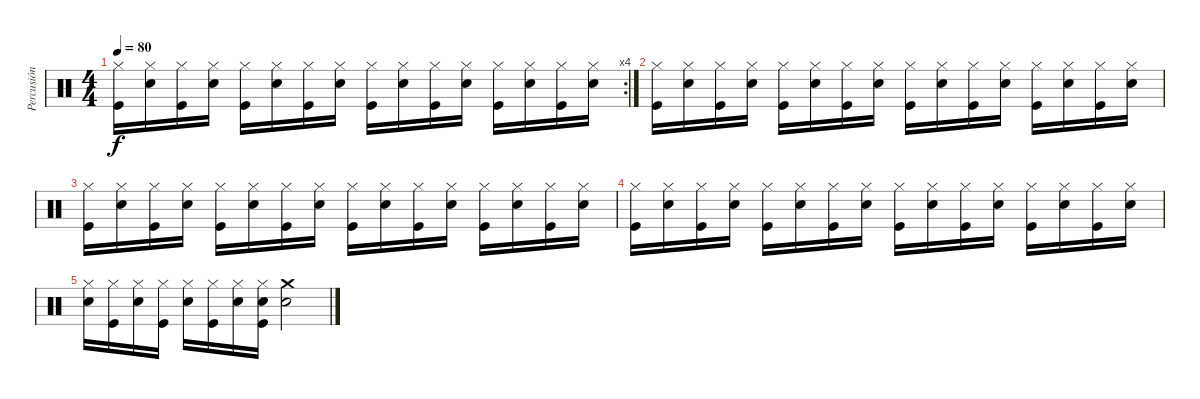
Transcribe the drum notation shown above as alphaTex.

\track ("Percusión" "Percusión") {instrument percussion}
\staff {score}
\articulation defaults
\rc 4
\ts (4 4)
\tempo 80
\clef neutral
\ks c
("Hi-Hat (closed)" "Kick (hit)").16{dy f} ("Hi-Hat (closed)" "Electric Snare (hit)").16 ("Hi-Hat (closed)" "Kick (hit)").16 ("Hi-Hat (closed)" "Electric Snare (hit)").16 ("Hi-Hat (closed)" "Kick (hit)").16 ("Hi-Hat (closed)" "Electric Snare (hit)").16 ("Hi-Hat (closed)" "Kick (hit)").16 ("Hi-Hat (closed)" "Electric Snare (hit)").16 ("Hi-Hat (closed)" "Kick (hit)").16 ("Hi-Hat (closed)" "Electric Snare (hit)").16 ("Hi-Hat (closed)" "Kick (hit)").16 ("Hi-Hat (closed)" "Electric Snare (hit)").16 ("Hi-Hat (closed)" "Kick (hit)").16 ("Hi-Hat (closed)" "Electric Snare (hit)").16 ("Hi-Hat (closed)" "Kick (hit)").16 ("Hi-Hat (closed)" "Electric Snare (hit)").16 |
("Hi-Hat (closed)" "Kick (hit)").16 ("Hi-Hat (closed)" "Electric Snare (hit)").16 ("Hi-Hat (closed)" "Kick (hit)").16 ("Hi-Hat (closed)" "Electric Snare (hit)").16 ("Hi-Hat (closed)" "Kick (hit)").16 ("Hi-Hat (closed)" "Electric Snare (hit)").16 ("Hi-Hat (closed)" "Kick (hit)").16 ("Hi-Hat (closed)" "Electric Snare (hit)").16 ("Hi-Hat (closed)" "Kick (hit)").16 ("Hi-Hat (closed)" "Electric Snare (hit)").16 ("Hi-Hat (closed)" "Kick (hit)").16 ("Hi-Hat (closed)" "Electric Snare (hit)").16 ("Hi-Hat (closed)" "Kick (hit)").16 ("Hi-Hat (closed)" "Electric Snare (hit)").16 ("Hi-Hat (closed)" "Kick (hit)").16 ("Hi-Hat (closed)" "Electric Snare (hit)").16 |
("Hi-Hat (closed)" "Kick (hit)").16 ("Hi-Hat (closed)" "Electric Snare (hit)").16 ("Hi-Hat (closed)" "Kick (hit)").16 ("Hi-Hat (closed)" "Electric Snare (hit)").16 ("Hi-Hat (closed)" "Kick (hit)").16 ("Hi-Hat (closed)" "Electric Snare (hit)").16 ("Hi-Hat (closed)" "Kick (hit)").16 ("Hi-Hat (closed)" "Electric Snare (hit)").16 ("Hi-Hat (closed)" "Kick (hit)").16 ("Hi-Hat (closed)" "Electric Snare (hit)").16 ("Hi-Hat (closed)" "Kick (hit)").16 ("Hi-Hat (closed)" "Electric Snare (hit)").16 ("Hi-Hat (closed)" "Kick (hit)").16 ("Hi-Hat (closed)" "Electric Snare (hit)").16 ("Hi-Hat (closed)" "Kick (hit)").16 ("Hi-Hat (closed)" "Electric Snare (hit)").16 |
("Hi-Hat (closed)" "Kick (hit)").16 ("Hi-Hat (closed)" "Electric Snare (hit)").16 ("Hi-Hat (closed)" "Kick (hit)").16 ("Hi-Hat (closed)" "Electric Snare (hit)").16 ("Hi-Hat (closed)" "Kick (hit)").16 ("Hi-Hat (closed)" "Electric Snare (hit)").16 ("Hi-Hat (closed)" "Kick (hit)").16 ("Hi-Hat (closed)" "Electric Snare (hit)").16 ("Hi-Hat (closed)" "Kick (hit)").16 ("Hi-Hat (closed)" "Electric Snare (hit)").16 ("Hi-Hat (closed)" "Kick (hit)").16 ("Hi-Hat (closed)" "Electric Snare (hit)").16 ("Hi-Hat (closed)" "Kick (hit)").16 ("Hi-Hat (closed)" "Electric Snare (hit)").16 ("Hi-Hat (closed)" "Kick (hit)").16 ("Hi-Hat (closed)" "Electric Snare (hit)").16 |
("Hi-Hat (closed)" "Electric Snare (hit)").16 ("Hi-Hat (closed)" "Kick (hit)").16 ("Hi-Hat (closed)" "Electric Snare (hit)").16 ("Hi-Hat (closed)" "Kick (hit)").16 ("Hi-Hat (closed)" "Electric Snare (hit)").16 ("Hi-Hat (closed)" "Kick (hit)").16 ("Hi-Hat (closed)" "Electric Snare (hit)").16 ("Hi-Hat (closed)" "Electric Snare (hit)" "Kick (hit)").16 ("Crash medium (hit)" "Electric Snare (hit)").2
